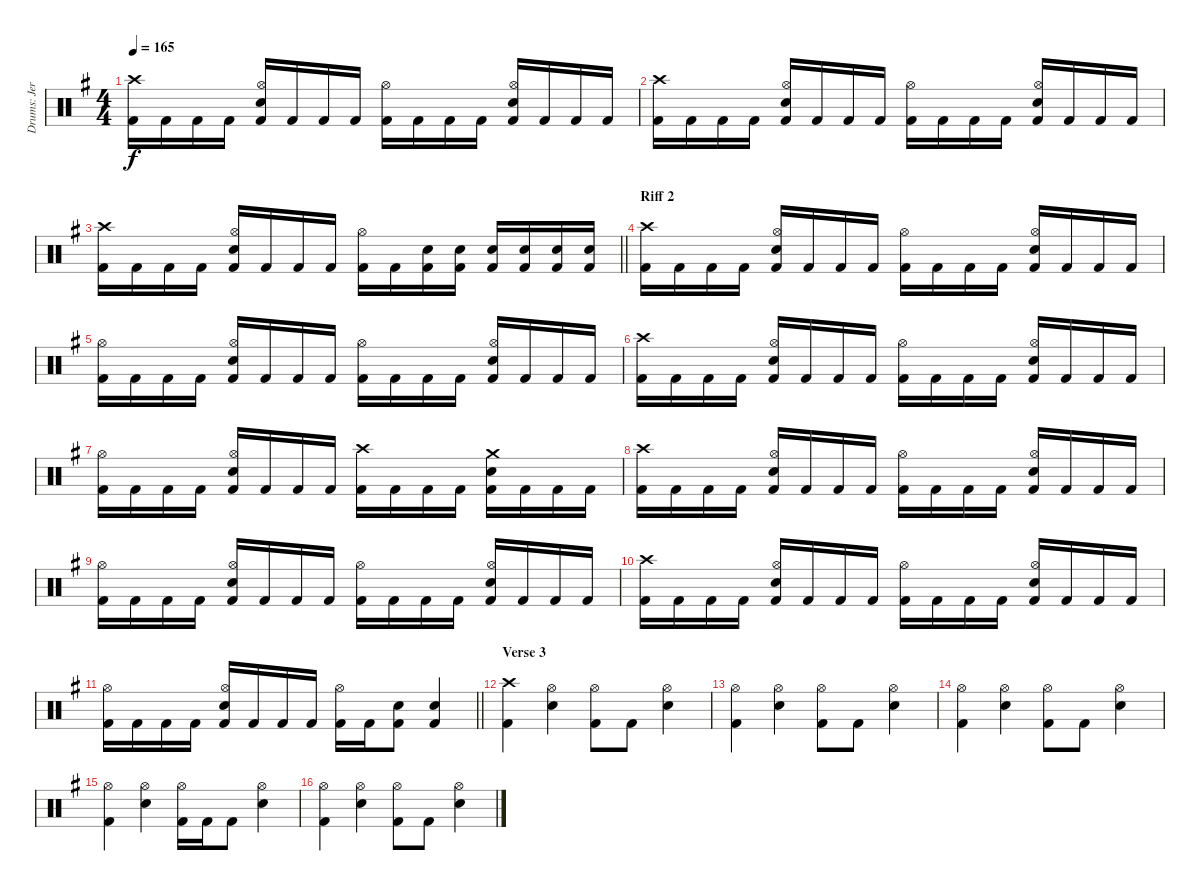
\track ("Drums: Jere Luokkamäki" "Drums: Jer") {instrument percussion}
\staff {score}
\articulation defaults
\ts (4 4)
\tempo 165
\clef neutral
\ks eminor
("Crash high (hit)" "Kick (hit) 2").16{dy f} "Kick (hit) 2".16 "Kick (hit) 2".16 "Kick (hit) 2".16 ("Hi-Hat (open)" "Electric Snare (hit)" "Kick (hit) 2").16 "Kick (hit) 2".16 "Kick (hit) 2".16 "Kick (hit) 2".16 ("Hi-Hat (open)" "Kick (hit) 2").16 "Kick (hit) 2".16 "Kick (hit) 2".16 "Kick (hit) 2".16 ("Hi-Hat (open)" "Electric Snare (hit)" "Kick (hit) 2").16 "Kick (hit) 2".16 "Kick (hit) 2".16 "Kick (hit) 2".16 |
("Crash high (hit)" "Kick (hit) 2").16 "Kick (hit) 2".16 "Kick (hit) 2".16 "Kick (hit) 2".16 ("Hi-Hat (open)" "Electric Snare (hit)" "Kick (hit) 2").16 "Kick (hit) 2".16 "Kick (hit) 2".16 "Kick (hit) 2".16 ("Hi-Hat (open)" "Kick (hit) 2").16 "Kick (hit) 2".16 "Kick (hit) 2".16 "Kick (hit) 2".16 ("Hi-Hat (open)" "Electric Snare (hit)" "Kick (hit) 2").16 "Kick (hit) 2".16 "Kick (hit) 2".16 "Kick (hit) 2".16 |
\barLineRight lightlight
("Crash high (hit)" "Kick (hit) 2").16 "Kick (hit) 2".16 "Kick (hit) 2".16 "Kick (hit) 2".16 ("Hi-Hat (open)" "Electric Snare (hit)" "Kick (hit) 2").16 "Kick (hit) 2".16 "Kick (hit) 2".16 "Kick (hit) 2".16 ("Hi-Hat (open)" "Kick (hit) 2").16 "Kick (hit) 2".16 ("Electric Snare (hit)" "Kick (hit) 2").16 ("Electric Snare (hit)" "Kick (hit) 2").16 ("Electric Snare (hit)" "Kick (hit) 2").16 ("Electric Snare (hit)" "Kick (hit) 2").16 ("Electric Snare (hit)" "Kick (hit) 2").16 ("Electric Snare (hit)" "Kick (hit) 2").16 |
\section ("" "Riff 2")
("Crash high (hit)" "Kick (hit) 2").16 "Kick (hit) 2".16 "Kick (hit) 2".16 "Kick (hit) 2".16 ("Hi-Hat (open)" "Electric Snare (hit)" "Kick (hit) 2").16 "Kick (hit) 2".16 "Kick (hit) 2".16 "Kick (hit) 2".16 ("Hi-Hat (open)" "Kick (hit) 2").16 "Kick (hit) 2".16 "Kick (hit) 2".16 "Kick (hit) 2".16 ("Hi-Hat (open)" "Electric Snare (hit)" "Kick (hit) 2").16 "Kick (hit) 2".16 "Kick (hit) 2".16 "Kick (hit) 2".16 |
("Hi-Hat (open)" "Kick (hit) 2").16 "Kick (hit) 2".16 "Kick (hit) 2".16 "Kick (hit) 2".16 ("Hi-Hat (open)" "Electric Snare (hit)" "Kick (hit) 2").16 "Kick (hit) 2".16 "Kick (hit) 2".16 "Kick (hit) 2".16 ("Hi-Hat (open)" "Kick (hit) 2").16 "Kick (hit) 2".16 "Kick (hit) 2".16 "Kick (hit) 2".16 ("Hi-Hat (open)" "Electric Snare (hit)" "Kick (hit) 2").16 "Kick (hit) 2".16 "Kick (hit) 2".16 "Kick (hit) 2".16 |
("Crash high (hit)" "Kick (hit) 2").16 "Kick (hit) 2".16 "Kick (hit) 2".16 "Kick (hit) 2".16 ("Hi-Hat (open)" "Electric Snare (hit)" "Kick (hit) 2").16 "Kick (hit) 2".16 "Kick (hit) 2".16 "Kick (hit) 2".16 ("Hi-Hat (open)" "Kick (hit) 2").16 "Kick (hit) 2".16 "Kick (hit) 2".16 "Kick (hit) 2".16 ("Hi-Hat (open)" "Electric Snare (hit)" "Kick (hit) 2").16 "Kick (hit) 2".16 "Kick (hit) 2".16 "Kick (hit) 2".16 |
("Hi-Hat (open)" "Kick (hit) 2").16 "Kick (hit) 2".16 "Kick (hit) 2".16 "Kick (hit) 2".16 ("Hi-Hat (open)" "Electric Snare (hit)" "Kick (hit) 2").16 "Kick (hit) 2".16 "Kick (hit) 2".16 "Kick (hit) 2".16 ("Crash high (hit)" "Kick (hit) 2").16 "Kick (hit) 2".16 "Kick (hit) 2".16 "Kick (hit) 2".16 ("Crash medium (hit)" "Electric Snare (hit)" "Kick (hit) 2").16 "Kick (hit) 2".16 "Kick (hit) 2".16 "Kick (hit) 2".16 |
("Crash high (hit)" "Kick (hit) 2").16 "Kick (hit) 2".16 "Kick (hit) 2".16 "Kick (hit) 2".16 ("Hi-Hat (open)" "Electric Snare (hit)" "Kick (hit) 2").16 "Kick (hit) 2".16 "Kick (hit) 2".16 "Kick (hit) 2".16 ("Hi-Hat (open)" "Kick (hit) 2").16 "Kick (hit) 2".16 "Kick (hit) 2".16 "Kick (hit) 2".16 ("Hi-Hat (open)" "Electric Snare (hit)" "Kick (hit) 2").16 "Kick (hit) 2".16 "Kick (hit) 2".16 "Kick (hit) 2".16 |
("Hi-Hat (open)" "Kick (hit) 2").16 "Kick (hit) 2".16 "Kick (hit) 2".16 "Kick (hit) 2".16 ("Hi-Hat (open)" "Electric Snare (hit)" "Kick (hit) 2").16 "Kick (hit) 2".16 "Kick (hit) 2".16 "Kick (hit) 2".16 ("Hi-Hat (open)" "Kick (hit) 2").16 "Kick (hit) 2".16 "Kick (hit) 2".16 "Kick (hit) 2".16 ("Hi-Hat (open)" "Electric Snare (hit)" "Kick (hit) 2").16 "Kick (hit) 2".16 "Kick (hit) 2".16 "Kick (hit) 2".16 |
("Crash high (hit)" "Kick (hit) 2").16 "Kick (hit) 2".16 "Kick (hit) 2".16 "Kick (hit) 2".16 ("Hi-Hat (open)" "Electric Snare (hit)" "Kick (hit) 2").16 "Kick (hit) 2".16 "Kick (hit) 2".16 "Kick (hit) 2".16 ("Hi-Hat (open)" "Kick (hit) 2").16 "Kick (hit) 2".16 "Kick (hit) 2".16 "Kick (hit) 2".16 ("Hi-Hat (open)" "Electric Snare (hit)" "Kick (hit) 2").16 "Kick (hit) 2".16 "Kick (hit) 2".16 "Kick (hit) 2".16 |
\barLineRight lightlight
("Hi-Hat (open)" "Kick (hit) 2").16 "Kick (hit) 2".16 "Kick (hit) 2".16 "Kick (hit) 2".16 ("Hi-Hat (open)" "Electric Snare (hit)" "Kick (hit) 2").16 "Kick (hit) 2".16 "Kick (hit) 2".16 "Kick (hit) 2".16 ("Hi-Hat (open)" "Kick (hit) 2").16 "Kick (hit) 2".16 ("Electric Snare (hit)" "Kick (hit) 2").8 ("Electric Snare (hit)" "Kick (hit) 2").4 |
\section ("" "Verse 3")
("Crash high (hit)" "Kick (hit) 2").4 ("Hi-Hat (open)" "Electric Snare (hit)").4 ("Hi-Hat (open)" "Kick (hit) 2").8 "Kick (hit) 2".8 ("Hi-Hat (open)" "Electric Snare (hit)").4 |
("Hi-Hat (open)" "Kick (hit) 2").4 ("Hi-Hat (open)" "Electric Snare (hit)").4 ("Hi-Hat (open)" "Kick (hit) 2").8 "Kick (hit) 2".8 ("Hi-Hat (open)" "Electric Snare (hit)").4 |
("Hi-Hat (open)" "Kick (hit) 2").4 ("Hi-Hat (open)" "Electric Snare (hit)").4 ("Hi-Hat (open)" "Kick (hit) 2").8 "Kick (hit) 2".8 ("Hi-Hat (open)" "Electric Snare (hit)").4 |
("Hi-Hat (open)" "Kick (hit) 2").4 ("Hi-Hat (open)" "Electric Snare (hit)").4 ("Hi-Hat (open)" "Kick (hit) 2").16 "Kick (hit) 2".16 "Kick (hit) 2".8 ("Hi-Hat (open)" "Electric Snare (hit)").4 |
("Hi-Hat (open)" "Kick (hit) 2").4 ("Hi-Hat (open)" "Electric Snare (hit)").4 ("Hi-Hat (open)" "Kick (hit) 2").8 "Kick (hit) 2".8 ("Hi-Hat (open)" "Electric Snare (hit)").4
